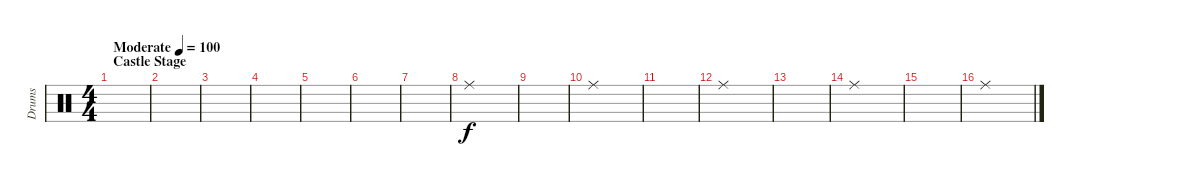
\track ("Drums" "Drums") {instrument percussion}
\staff {score}
\articulation defaults
\ts (4 4)
\section ("" "Castle Stage")
\tempo (100 "Moderate")
\clef neutral
\ks c
|
|
|
|
|
|
|
"Ride (middle)".1 |
|
"Ride (middle)".1 |
|
"Ride (middle)".1 |
|
"Ride (middle)".1 |
|
"Ride (middle)".1
